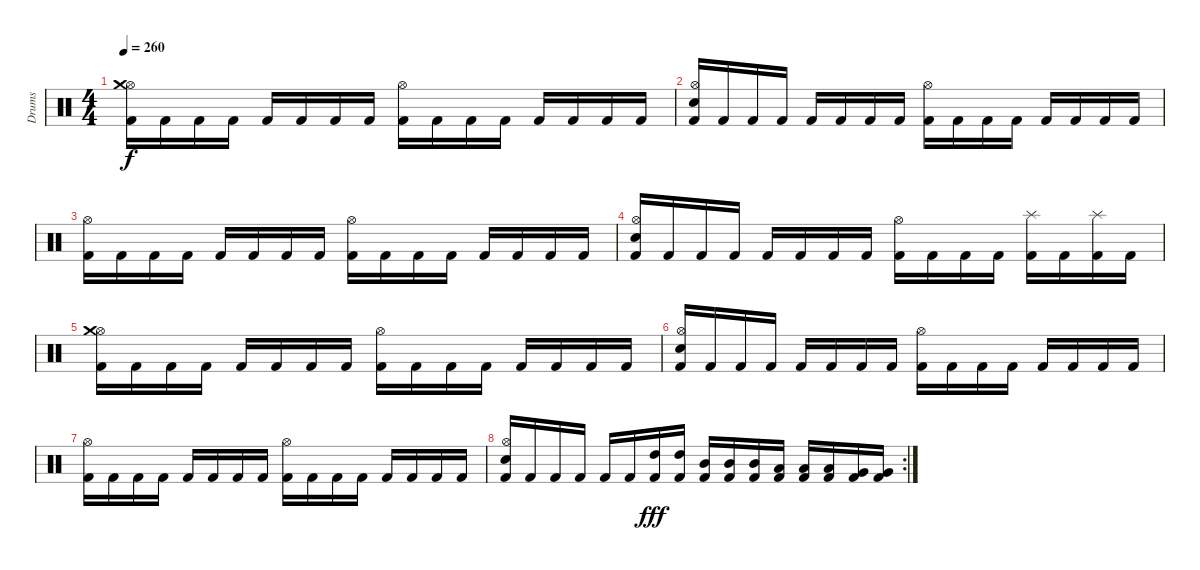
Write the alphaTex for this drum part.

\track ("Drums" "Drums") {instrument percussion}
\staff {score}
\articulation defaults
\ts (4 4)
\tempo 260
\clef neutral
\ks c
("Kick (hit) 2" "Hi-Hat (open)" "Crash medium (hit)").16{dy f} "Kick (hit) 2".16 "Kick (hit) 2".16 "Kick (hit) 2".16 "Kick (hit) 2".16 "Kick (hit) 2".16 "Kick (hit) 2".16 "Kick (hit) 2".16 ("Kick (hit) 2" "Hi-Hat (open)").16 "Kick (hit) 2".16 "Kick (hit) 2".16 "Kick (hit) 2".16 "Kick (hit) 2".16 "Kick (hit) 2".16 "Kick (hit) 2".16 "Kick (hit) 2".16 |
("Kick (hit) 2" "Electric Snare (hit)" "Hi-Hat (open)").16 "Kick (hit) 2".16 "Kick (hit) 2".16 "Kick (hit) 2".16 "Kick (hit) 2".16 "Kick (hit) 2".16 "Kick (hit) 2".16 "Kick (hit) 2".16 ("Kick (hit) 2" "Hi-Hat (open)").16 "Kick (hit) 2".16 "Kick (hit) 2".16 "Kick (hit) 2".16 "Kick (hit) 2".16 "Kick (hit) 2".16 "Kick (hit) 2".16 "Kick (hit) 2".16 |
("Kick (hit) 2" "Hi-Hat (open)").16 "Kick (hit) 2".16 "Kick (hit) 2".16 "Kick (hit) 2".16 "Kick (hit) 2".16 "Kick (hit) 2".16 "Kick (hit) 2".16 "Kick (hit) 2".16 ("Kick (hit) 2" "Hi-Hat (open)").16 "Kick (hit) 2".16 "Kick (hit) 2".16 "Kick (hit) 2".16 "Kick (hit) 2".16 "Kick (hit) 2".16 "Kick (hit) 2".16 "Kick (hit) 2".16 |
("Kick (hit) 2" "Electric Snare (hit)" "Hi-Hat (open)").16 "Kick (hit) 2".16 "Kick (hit) 2".16 "Kick (hit) 2".16 "Kick (hit) 2".16 "Kick (hit) 2".16 "Kick (hit) 2".16 "Kick (hit) 2".16 ("Kick (hit) 2" "Hi-Hat (open)").16 "Kick (hit) 2".16 "Kick (hit) 2".16 "Kick (hit) 2".16 ("Kick (hit) 2" "Splash (hit)").16 "Kick (hit) 2".16 ("Kick (hit) 2" "Splash (hit)").16 "Kick (hit) 2".16 |
("Kick (hit) 2" "Hi-Hat (open)" "Crash medium (hit)").16 "Kick (hit) 2".16 "Kick (hit) 2".16 "Kick (hit) 2".16 "Kick (hit) 2".16 "Kick (hit) 2".16 "Kick (hit) 2".16 "Kick (hit) 2".16 ("Kick (hit) 2" "Hi-Hat (open)").16 "Kick (hit) 2".16 "Kick (hit) 2".16 "Kick (hit) 2".16 "Kick (hit) 2".16 "Kick (hit) 2".16 "Kick (hit) 2".16 "Kick (hit) 2".16 |
("Kick (hit) 2" "Electric Snare (hit)" "Hi-Hat (open)").16 "Kick (hit) 2".16 "Kick (hit) 2".16 "Kick (hit) 2".16 "Kick (hit) 2".16 "Kick (hit) 2".16 "Kick (hit) 2".16 "Kick (hit) 2".16 ("Kick (hit) 2" "Hi-Hat (open)").16 "Kick (hit) 2".16 "Kick (hit) 2".16 "Kick (hit) 2".16 "Kick (hit) 2".16 "Kick (hit) 2".16 "Kick (hit) 2".16 "Kick (hit) 2".16 |
("Kick (hit) 2" "Hi-Hat (open)").16 "Kick (hit) 2".16 "Kick (hit) 2".16 "Kick (hit) 2".16 "Kick (hit) 2".16 "Kick (hit) 2".16 "Kick (hit) 2".16 "Kick (hit) 2".16 ("Kick (hit) 2" "Hi-Hat (open)").16 "Kick (hit) 2".16 "Kick (hit) 2".16 "Kick (hit) 2".16 "Kick (hit) 2".16 "Kick (hit) 2".16 "Kick (hit) 2".16 "Kick (hit) 2".16 |
\rc 2
("Kick (hit) 2" "Electric Snare (hit)" "Hi-Hat (open)").16 "Kick (hit) 2".16 "Kick (hit) 2".16 "Kick (hit) 2".16 "Kick (hit) 2".16 "Kick (hit) 2".16 ("Kick (hit) 2" "High Tom (hit)").16{dy fff} ("Kick (hit) 2" "High Tom (hit)").16 ("Kick (hit) 2" "Mid Tom (hit)").16 ("Kick (hit) 2" "Mid Tom (hit)").16 ("Kick (hit) 2" "Mid Tom (hit)").16 ("Kick (hit) 2" "Low Tom (hit)").16 ("Kick (hit) 2" "Low Tom (hit)").16 ("Kick (hit) 2" "Low Tom (hit)").16 ("Kick (hit) 2" "Very Low Tom (hit)").16 ("Kick (hit) 2" "Very Low Tom (hit)").16
